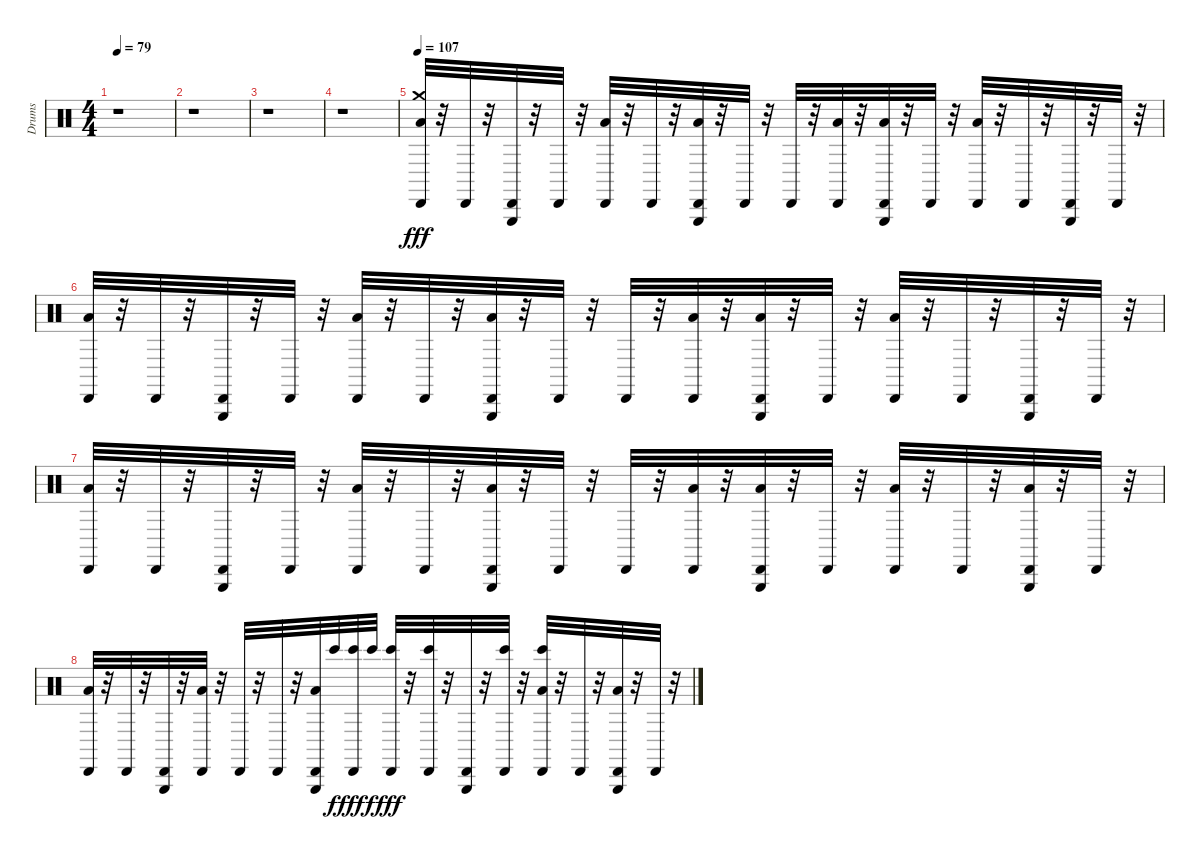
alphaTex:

\track ("Drums" "Drums") {instrument percussion}
\staff {score}
\articulation defaults
\ts (4 4)
\tempo 79
\clef neutral
\ks c
r.1{dy fff} |
r.1 |
r.1 |
r.1 |
\tempo 107
("Crash medium (hit)" "Cabasa (hit)" "Low Floor Tom (hit)").32 r.32 "Cabasa (hit)".32 r.32 ("Cabasa (hit)" "Triangle (hit)").32 r.32 "Cabasa (hit)".32 r.32 ("Cabasa (hit)" "Low Floor Tom (hit)").32 r.32 "Cabasa (hit)".32 r.32 ("Cabasa (hit)" "Triangle (hit)" "Low Floor Tom (hit)").32 r.32 "Cabasa (hit)".32 r.32 "Cabasa (hit)".32 r.32 ("Cabasa (hit)" "Low Floor Tom (hit)").32 r.32 ("Cabasa (hit)" "Triangle (hit)" "Low Floor Tom (hit)").32 r.32 "Cabasa (hit)".32 r.32 ("Cabasa (hit)" "Low Floor Tom (hit)").32 r.32 "Cabasa (hit)".32 r.32 ("Cabasa (hit)" "Triangle (hit)").32 r.32 "Cabasa (hit)".32 r.32 |
("Cabasa (hit)" "Low Floor Tom (hit)").32 r.32 "Cabasa (hit)".32 r.32 ("Cabasa (hit)" "Triangle (hit)").32 r.32 "Cabasa (hit)".32 r.32 ("Cabasa (hit)" "Low Floor Tom (hit)").32 r.32 "Cabasa (hit)".32 r.32 ("Cabasa (hit)" "Triangle (hit)" "Low Floor Tom (hit)").32 r.32 "Cabasa (hit)".32 r.32 "Cabasa (hit)".32 r.32 ("Cabasa (hit)" "Low Floor Tom (hit)").32 r.32 ("Cabasa (hit)" "Triangle (hit)" "Low Floor Tom (hit)").32 r.32 "Cabasa (hit)".32 r.32 ("Cabasa (hit)" "Low Floor Tom (hit)").32 r.32 "Cabasa (hit)".32 r.32 ("Cabasa (hit)" "Triangle (hit)").32 r.32 "Cabasa (hit)".32 r.32 |
("Cabasa (hit)" "Low Floor Tom (hit)").32 r.32 "Cabasa (hit)".32 r.32 ("Cabasa (hit)" "Triangle (hit)").32 r.32 "Cabasa (hit)".32 r.32 ("Cabasa (hit)" "Low Floor Tom (hit)").32 r.32 "Cabasa (hit)".32 r.32 ("Cabasa (hit)" "Triangle (hit)" "Low Floor Tom (hit)").32 r.32 "Cabasa (hit)".32 r.32 "Cabasa (hit)".32 r.32 ("Cabasa (hit)" "Low Floor Tom (hit)").32 r.32 ("Cabasa (hit)" "Triangle (hit)" "Low Floor Tom (hit)").32 r.32 "Cabasa (hit)".32 r.32 ("Cabasa (hit)" "Low Floor Tom (hit)").32 r.32 "Cabasa (hit)".32 r.32 ("Cabasa (hit)" "Low Floor Tom (hit)" "Triangle (hit)").32 r.32 "Cabasa (hit)".32 r.32 |
("Cabasa (hit)" "Low Floor Tom (hit)").32 r.32 "Cabasa (hit)".32 r.32 ("Cabasa (hit)" "Triangle (hit)").32 r.32 ("Cabasa (hit)" "Low Floor Tom (hit)").32 r.32 "Cabasa (hit)".32 r.32 "Cabasa (hit)".32 r.32 ("Cabasa (hit)" "Triangle (hit)" "Low Floor Tom (hit)").32 "Bongo High (hit)".32{dy f} ("Cabasa (hit)" "Bongo High (hit)").32{dy fff} "Bongo High (hit)".32{dy f} ("Cabasa (hit)" "Bongo High (hit)").32{dy fff} r.32 ("Cabasa (hit)" "Bongo High (hit)").32 r.32 ("Cabasa (hit)" "Triangle (hit)").32 r.32 ("Cabasa (hit)" "Bongo High (hit)").32 r.32 ("Cabasa (hit)" "Low Floor Tom (hit)" "Bongo High (hit)").32 r.32 "Cabasa (hit)".32 r.32 ("Cabasa (hit)" "Triangle (hit)" "Low Floor Tom (hit)").32 r.32 "Cabasa (hit)".32 r.32
